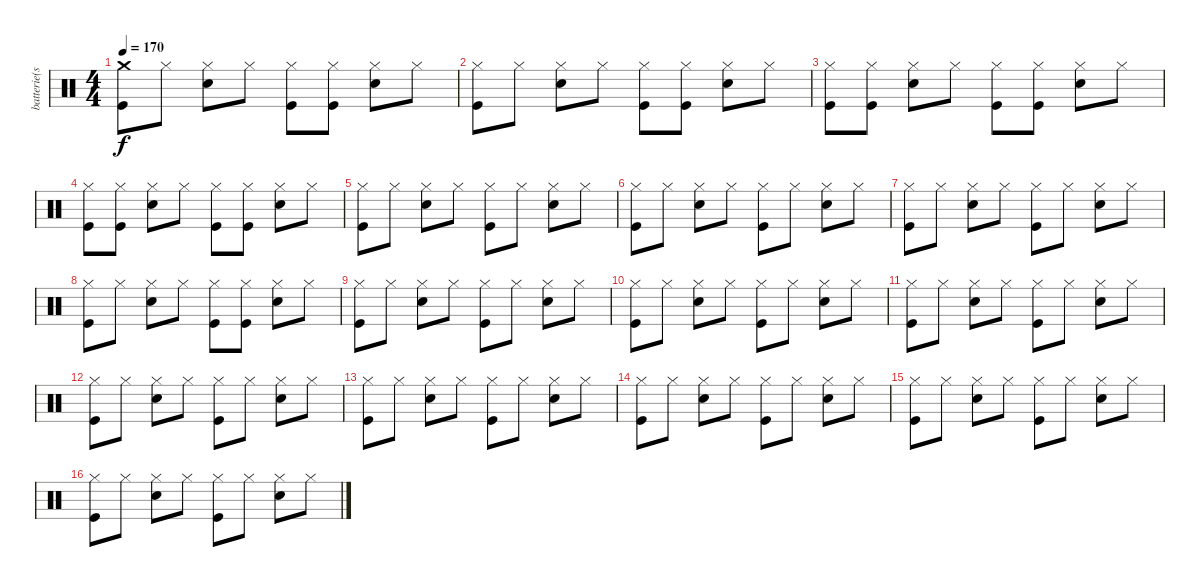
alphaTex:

\track ("batterie(steve)" "batterie(s") {instrument percussion}
\staff {score}
\articulation defaults
\ts (4 4)
\tempo 170
\clef neutral
\ks c
("Crash medium (hit)" "Kick (hit)").8{dy f} "Hi-Hat (closed)".8 ("Hi-Hat (closed)" "Snare (hit) 2").8 "Hi-Hat (closed)".8 ("Hi-Hat (closed)" "Kick (hit)").8 ("Hi-Hat (closed)" "Kick (hit)").8 ("Hi-Hat (closed)" "Snare (hit) 2").8 "Hi-Hat (closed)".8 |
("Hi-Hat (closed)" "Kick (hit)").8 "Hi-Hat (closed)".8 ("Hi-Hat (closed)" "Snare (hit) 2").8 "Hi-Hat (closed)".8 ("Hi-Hat (closed)" "Kick (hit)").8 ("Hi-Hat (closed)" "Kick (hit)").8 ("Hi-Hat (closed)" "Snare (hit) 2").8 "Hi-Hat (closed)".8 |
("Hi-Hat (closed)" "Kick (hit)").8 ("Hi-Hat (closed)" "Kick (hit)").8 ("Hi-Hat (closed)" "Snare (hit) 2").8 "Hi-Hat (closed)".8 ("Hi-Hat (closed)" "Kick (hit)").8 ("Hi-Hat (closed)" "Kick (hit)").8 ("Hi-Hat (closed)" "Snare (hit) 2").8 "Hi-Hat (closed)".8 |
("Hi-Hat (closed)" "Kick (hit)").8 ("Hi-Hat (closed)" "Kick (hit)").8 ("Hi-Hat (closed)" "Snare (hit) 2").8 "Hi-Hat (closed)".8 ("Hi-Hat (closed)" "Kick (hit)").8 ("Hi-Hat (closed)" "Kick (hit)").8 ("Hi-Hat (closed)" "Snare (hit) 2").8 "Hi-Hat (closed)".8 |
("Hi-Hat (closed)" "Kick (hit)").8 "Hi-Hat (closed)".8 ("Hi-Hat (closed)" "Snare (hit) 2").8 "Hi-Hat (closed)".8 ("Hi-Hat (closed)" "Kick (hit)").8 "Hi-Hat (closed)".8 ("Hi-Hat (closed)" "Snare (hit) 2").8 "Hi-Hat (closed)".8 |
("Hi-Hat (closed)" "Kick (hit)").8 "Hi-Hat (closed)".8 ("Hi-Hat (closed)" "Snare (hit) 2").8 "Hi-Hat (closed)".8 ("Hi-Hat (closed)" "Kick (hit)").8 "Hi-Hat (closed)".8 ("Hi-Hat (closed)" "Snare (hit) 2").8 "Hi-Hat (closed)".8 |
("Hi-Hat (closed)" "Kick (hit)").8 "Hi-Hat (closed)".8 ("Hi-Hat (closed)" "Snare (hit) 2").8 "Hi-Hat (closed)".8 ("Hi-Hat (closed)" "Kick (hit)").8 "Hi-Hat (closed)".8 ("Hi-Hat (closed)" "Snare (hit) 2").8 "Hi-Hat (closed)".8 |
("Hi-Hat (closed)" "Kick (hit)").8 "Hi-Hat (closed)".8 ("Hi-Hat (closed)" "Snare (hit) 2").8 "Hi-Hat (closed)".8 ("Hi-Hat (closed)" "Kick (hit)").8 ("Hi-Hat (closed)" "Kick (hit)").8 ("Hi-Hat (closed)" "Snare (hit) 2").8 "Hi-Hat (closed)".8 |
("Hi-Hat (closed)" "Kick (hit)").8 "Hi-Hat (closed)".8 ("Hi-Hat (closed)" "Snare (hit) 2").8 "Hi-Hat (closed)".8 ("Hi-Hat (closed)" "Kick (hit)").8 "Hi-Hat (closed)".8 ("Hi-Hat (closed)" "Snare (hit) 2").8 "Hi-Hat (closed)".8 |
("Hi-Hat (closed)" "Kick (hit)").8 "Hi-Hat (closed)".8 ("Hi-Hat (closed)" "Snare (hit) 2").8 "Hi-Hat (closed)".8 ("Hi-Hat (closed)" "Kick (hit)").8 "Hi-Hat (closed)".8 ("Hi-Hat (closed)" "Snare (hit) 2").8 "Hi-Hat (closed)".8 |
("Hi-Hat (closed)" "Kick (hit)").8 "Hi-Hat (closed)".8 ("Hi-Hat (closed)" "Snare (hit) 2").8 "Hi-Hat (closed)".8 ("Hi-Hat (closed)" "Kick (hit)").8 "Hi-Hat (closed)".8 ("Hi-Hat (closed)" "Snare (hit) 2").8 "Hi-Hat (closed)".8 |
("Hi-Hat (closed)" "Kick (hit)").8 "Hi-Hat (closed)".8 ("Hi-Hat (closed)" "Snare (hit) 2").8 "Hi-Hat (closed)".8 ("Hi-Hat (closed)" "Kick (hit)").8 "Hi-Hat (closed)".8 ("Hi-Hat (closed)" "Snare (hit) 2").8 "Hi-Hat (closed)".8 |
("Hi-Hat (closed)" "Kick (hit)").8 "Hi-Hat (closed)".8 ("Hi-Hat (closed)" "Snare (hit) 2").8 "Hi-Hat (closed)".8 ("Hi-Hat (closed)" "Kick (hit)").8 "Hi-Hat (closed)".8 ("Hi-Hat (closed)" "Snare (hit) 2").8 "Hi-Hat (closed)".8 |
("Hi-Hat (closed)" "Kick (hit)").8 "Hi-Hat (closed)".8 ("Hi-Hat (closed)" "Snare (hit) 2").8 "Hi-Hat (closed)".8 ("Hi-Hat (closed)" "Kick (hit)").8 "Hi-Hat (closed)".8 ("Hi-Hat (closed)" "Snare (hit) 2").8 "Hi-Hat (closed)".8 |
("Hi-Hat (closed)" "Kick (hit)").8 "Hi-Hat (closed)".8 ("Hi-Hat (closed)" "Snare (hit) 2").8 "Hi-Hat (closed)".8 ("Hi-Hat (closed)" "Kick (hit)").8 "Hi-Hat (closed)".8 ("Hi-Hat (closed)" "Snare (hit) 2").8 "Hi-Hat (closed)".8 |
("Hi-Hat (closed)" "Kick (hit)").8 "Hi-Hat (closed)".8 ("Hi-Hat (closed)" "Snare (hit) 2").8 "Hi-Hat (closed)".8 ("Hi-Hat (closed)" "Kick (hit)").8 "Hi-Hat (closed)".8 ("Hi-Hat (closed)" "Snare (hit) 2").8 "Hi-Hat (closed)".8
